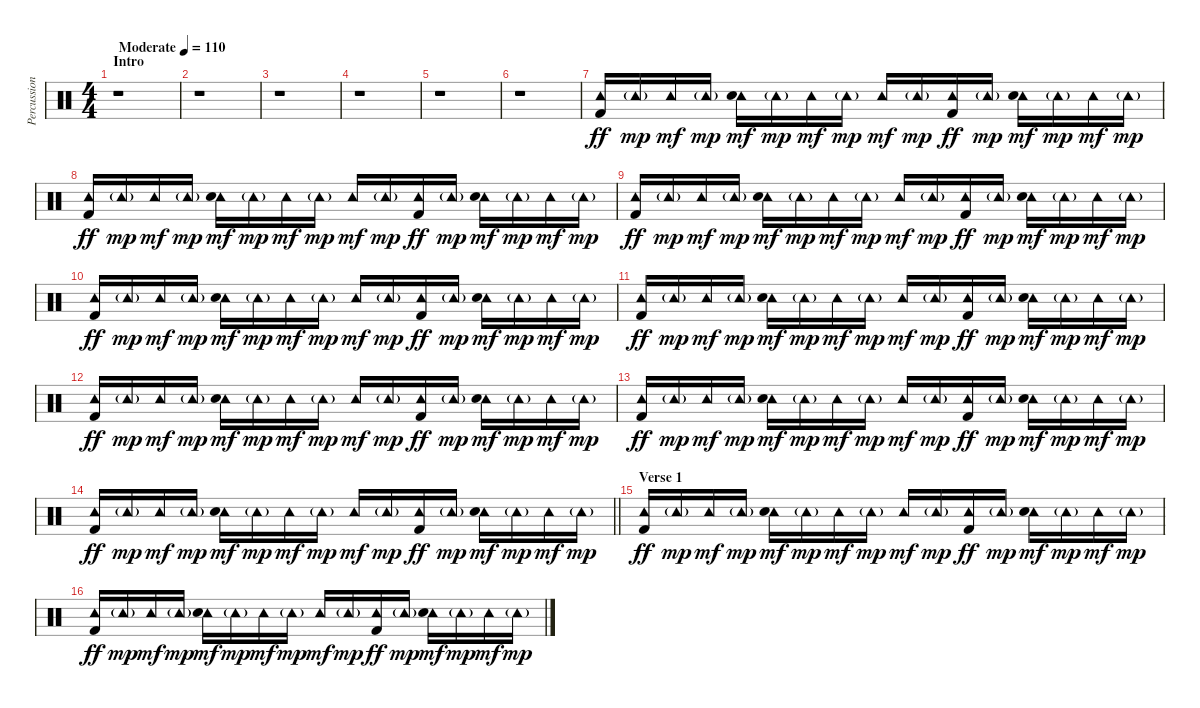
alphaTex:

\track ("Percussion" "Percussion") {instrument percussion}
\staff {score}
\articulation defaults
\ts (4 4)
\section ("" "Intro")
\tempo (110 "Moderate")
\clef neutral
\ks c
r.1{dy ff} |
r.1 |
r.1 |
r.1 |
r.1 |
r.1 |
("Tambourine (hit)" "Kick (hit) 2").16 "Tambourine (hit)"{g}.16{dy mp} "Tambourine (hit)".16{dy mf} "Tambourine (hit)"{g}.16{dy mp} ("Tambourine (hit)" "Electric Snare (hit)").16{dy mf} "Tambourine (hit)"{g}.16{dy mp} "Tambourine (hit)".16{dy mf} "Tambourine (hit)"{g}.16{dy mp} "Tambourine (hit)".16{dy mf} "Tambourine (hit)"{g}.16{dy mp} ("Tambourine (hit)" "Kick (hit) 2").16{dy ff} "Tambourine (hit)"{g}.16{dy mp} ("Tambourine (hit)" "Electric Snare (hit)").16{dy mf} "Tambourine (hit)"{g}.16{dy mp} "Tambourine (hit)".16{dy mf} "Tambourine (hit)"{g}.16{dy mp} |
("Tambourine (hit)" "Kick (hit) 2").16{dy ff} "Tambourine (hit)"{g}.16{dy mp} "Tambourine (hit)".16{dy mf} "Tambourine (hit)"{g}.16{dy mp} ("Tambourine (hit)" "Electric Snare (hit)").16{dy mf} "Tambourine (hit)"{g}.16{dy mp} "Tambourine (hit)".16{dy mf} "Tambourine (hit)"{g}.16{dy mp} "Tambourine (hit)".16{dy mf} "Tambourine (hit)"{g}.16{dy mp} ("Tambourine (hit)" "Kick (hit) 2").16{dy ff} "Tambourine (hit)"{g}.16{dy mp} ("Tambourine (hit)" "Electric Snare (hit)").16{dy mf} "Tambourine (hit)"{g}.16{dy mp} "Tambourine (hit)".16{dy mf} "Tambourine (hit)"{g}.16{dy mp} |
("Tambourine (hit)" "Kick (hit) 2").16{dy ff} "Tambourine (hit)"{g}.16{dy mp} "Tambourine (hit)".16{dy mf} "Tambourine (hit)"{g}.16{dy mp} ("Tambourine (hit)" "Electric Snare (hit)").16{dy mf} "Tambourine (hit)"{g}.16{dy mp} "Tambourine (hit)".16{dy mf} "Tambourine (hit)"{g}.16{dy mp} "Tambourine (hit)".16{dy mf} "Tambourine (hit)"{g}.16{dy mp} ("Tambourine (hit)" "Kick (hit) 2").16{dy ff} "Tambourine (hit)"{g}.16{dy mp} ("Tambourine (hit)" "Electric Snare (hit)").16{dy mf} "Tambourine (hit)"{g}.16{dy mp} "Tambourine (hit)".16{dy mf} "Tambourine (hit)"{g}.16{dy mp} |
("Tambourine (hit)" "Kick (hit) 2").16{dy ff} "Tambourine (hit)"{g}.16{dy mp} "Tambourine (hit)".16{dy mf} "Tambourine (hit)"{g}.16{dy mp} ("Tambourine (hit)" "Electric Snare (hit)").16{dy mf} "Tambourine (hit)"{g}.16{dy mp} "Tambourine (hit)".16{dy mf} "Tambourine (hit)"{g}.16{dy mp} "Tambourine (hit)".16{dy mf} "Tambourine (hit)"{g}.16{dy mp} ("Tambourine (hit)" "Kick (hit) 2").16{dy ff} "Tambourine (hit)"{g}.16{dy mp} ("Tambourine (hit)" "Electric Snare (hit)").16{dy mf} "Tambourine (hit)"{g}.16{dy mp} "Tambourine (hit)".16{dy mf} "Tambourine (hit)"{g}.16{dy mp} |
("Tambourine (hit)" "Kick (hit) 2").16{dy ff} "Tambourine (hit)"{g}.16{dy mp} "Tambourine (hit)".16{dy mf} "Tambourine (hit)"{g}.16{dy mp} ("Tambourine (hit)" "Electric Snare (hit)").16{dy mf} "Tambourine (hit)"{g}.16{dy mp} "Tambourine (hit)".16{dy mf} "Tambourine (hit)"{g}.16{dy mp} "Tambourine (hit)".16{dy mf} "Tambourine (hit)"{g}.16{dy mp} ("Tambourine (hit)" "Kick (hit) 2").16{dy ff} "Tambourine (hit)"{g}.16{dy mp} ("Tambourine (hit)" "Electric Snare (hit)").16{dy mf} "Tambourine (hit)"{g}.16{dy mp} "Tambourine (hit)".16{dy mf} "Tambourine (hit)"{g}.16{dy mp} |
("Tambourine (hit)" "Kick (hit) 2").16{dy ff} "Tambourine (hit)"{g}.16{dy mp} "Tambourine (hit)".16{dy mf} "Tambourine (hit)"{g}.16{dy mp} ("Tambourine (hit)" "Electric Snare (hit)").16{dy mf} "Tambourine (hit)"{g}.16{dy mp} "Tambourine (hit)".16{dy mf} "Tambourine (hit)"{g}.16{dy mp} "Tambourine (hit)".16{dy mf} "Tambourine (hit)"{g}.16{dy mp} ("Tambourine (hit)" "Kick (hit) 2").16{dy ff} "Tambourine (hit)"{g}.16{dy mp} ("Tambourine (hit)" "Electric Snare (hit)").16{dy mf} "Tambourine (hit)"{g}.16{dy mp} "Tambourine (hit)".16{dy mf} "Tambourine (hit)"{g}.16{dy mp} |
("Tambourine (hit)" "Kick (hit) 2").16{dy ff} "Tambourine (hit)"{g}.16{dy mp} "Tambourine (hit)".16{dy mf} "Tambourine (hit)"{g}.16{dy mp} ("Tambourine (hit)" "Electric Snare (hit)").16{dy mf} "Tambourine (hit)"{g}.16{dy mp} "Tambourine (hit)".16{dy mf} "Tambourine (hit)"{g}.16{dy mp} "Tambourine (hit)".16{dy mf} "Tambourine (hit)"{g}.16{dy mp} ("Tambourine (hit)" "Kick (hit) 2").16{dy ff} "Tambourine (hit)"{g}.16{dy mp} ("Tambourine (hit)" "Electric Snare (hit)").16{dy mf} "Tambourine (hit)"{g}.16{dy mp} "Tambourine (hit)".16{dy mf} "Tambourine (hit)"{g}.16{dy mp} |
\barLineRight lightlight
("Tambourine (hit)" "Kick (hit) 2").16{dy ff} "Tambourine (hit)"{g}.16{dy mp} "Tambourine (hit)".16{dy mf} "Tambourine (hit)"{g}.16{dy mp} ("Tambourine (hit)" "Electric Snare (hit)").16{dy mf} "Tambourine (hit)"{g}.16{dy mp} "Tambourine (hit)".16{dy mf} "Tambourine (hit)"{g}.16{dy mp} "Tambourine (hit)".16{dy mf} "Tambourine (hit)"{g}.16{dy mp} ("Tambourine (hit)" "Kick (hit) 2").16{dy ff} "Tambourine (hit)"{g}.16{dy mp} ("Tambourine (hit)" "Electric Snare (hit)").16{dy mf} "Tambourine (hit)"{g}.16{dy mp} "Tambourine (hit)".16{dy mf} "Tambourine (hit)"{g}.16{dy mp} |
\section ("" "Verse 1")
("Tambourine (hit)" "Kick (hit) 2").16{dy ff} "Tambourine (hit)"{g}.16{dy mp} "Tambourine (hit)".16{dy mf} "Tambourine (hit)"{g}.16{dy mp} ("Tambourine (hit)" "Electric Snare (hit)").16{dy mf} "Tambourine (hit)"{g}.16{dy mp} "Tambourine (hit)".16{dy mf} "Tambourine (hit)"{g}.16{dy mp} "Tambourine (hit)".16{dy mf} "Tambourine (hit)"{g}.16{dy mp} ("Tambourine (hit)" "Kick (hit) 2").16{dy ff} "Tambourine (hit)"{g}.16{dy mp} ("Tambourine (hit)" "Electric Snare (hit)").16{dy mf} "Tambourine (hit)"{g}.16{dy mp} "Tambourine (hit)".16{dy mf} "Tambourine (hit)"{g}.16{dy mp} |
("Tambourine (hit)" "Kick (hit) 2").16{dy ff} "Tambourine (hit)"{g}.16{dy mp} "Tambourine (hit)".16{dy mf} "Tambourine (hit)"{g}.16{dy mp} ("Tambourine (hit)" "Electric Snare (hit)").16{dy mf} "Tambourine (hit)"{g}.16{dy mp} "Tambourine (hit)".16{dy mf} "Tambourine (hit)"{g}.16{dy mp} "Tambourine (hit)".16{dy mf} "Tambourine (hit)"{g}.16{dy mp} ("Tambourine (hit)" "Kick (hit) 2").16{dy ff} "Tambourine (hit)"{g}.16{dy mp} ("Tambourine (hit)" "Electric Snare (hit)").16{dy mf} "Tambourine (hit)"{g}.16{dy mp} "Tambourine (hit)".16{dy mf} "Tambourine (hit)"{g}.16{dy mp}
